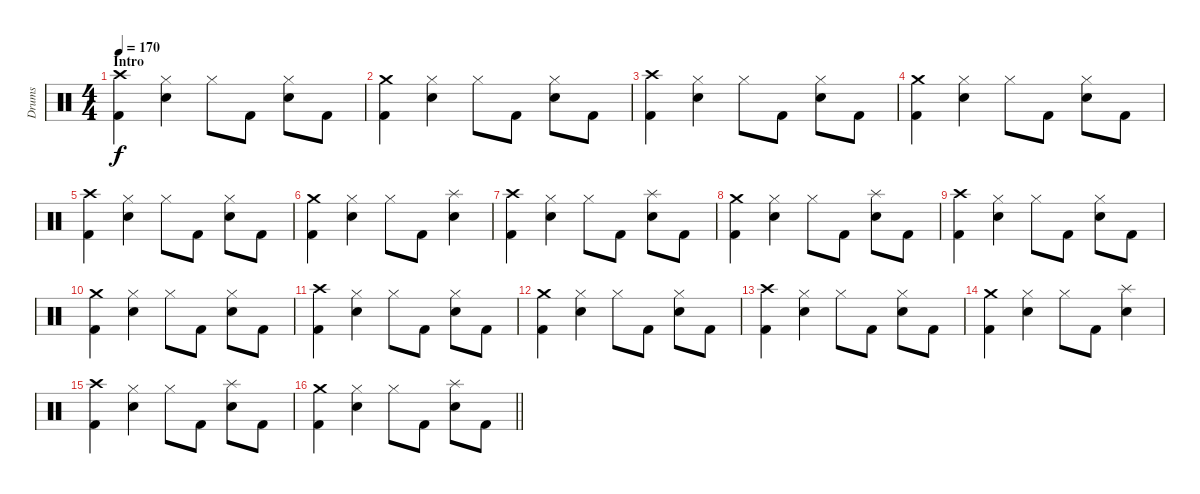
\track ("Drums" "Drums") {instrument percussion}
\staff {score}
\articulation defaults
\ts (4 4)
\section ("" "Intro")
\tempo 170
\clef neutral
\ks c
("Kick (hit) 2" "Crash high (hit)").4{dy f} ("Hi-Hat (closed)" "Electric Snare (hit)").4 "Hi-Hat (closed)".8 "Kick (hit) 2".8 ("Hi-Hat (closed)" "Electric Snare (hit)").8 "Kick (hit) 2".8 |
("Kick (hit) 2" "Crash medium (hit)").4 ("Hi-Hat (closed)" "Electric Snare (hit)").4 "Hi-Hat (closed)".8 "Kick (hit) 2".8 ("Hi-Hat (closed)" "Electric Snare (hit)").8 "Kick (hit) 2".8 |
("Kick (hit) 2" "Crash high (hit)").4 ("Hi-Hat (closed)" "Electric Snare (hit)").4 "Hi-Hat (closed)".8 "Kick (hit) 2".8 ("Hi-Hat (closed)" "Electric Snare (hit)").8 "Kick (hit) 2".8 |
("Kick (hit) 2" "Crash medium (hit)").4 ("Hi-Hat (closed)" "Electric Snare (hit)").4 "Hi-Hat (closed)".8 "Kick (hit) 2".8 ("Hi-Hat (closed)" "Electric Snare (hit)").8 "Kick (hit) 2".8 |
("Kick (hit) 2" "Crash high (hit)").4 ("Hi-Hat (closed)" "Electric Snare (hit)").4 "Hi-Hat (closed)".8 "Kick (hit) 2".8 ("Hi-Hat (closed)" "Electric Snare (hit)").8 "Kick (hit) 2".8 |
("Kick (hit) 2" "Crash medium (hit)").4 ("Hi-Hat (closed)" "Electric Snare (hit)").4 "Hi-Hat (closed)".8 "Kick (hit) 2".8 ("Splash (hit)" "Electric Snare (hit)").4 |
("Kick (hit) 2" "Crash high (hit)").4 ("Hi-Hat (closed)" "Electric Snare (hit)").4 "Hi-Hat (closed)".8 "Kick (hit) 2".8 ("Splash (hit)" "Electric Snare (hit)").8 "Kick (hit) 2".8 |
("Kick (hit) 2" "Crash medium (hit)").4 ("Hi-Hat (closed)" "Electric Snare (hit)").4 "Hi-Hat (closed)".8 "Kick (hit) 2".8 ("Splash (hit)" "Electric Snare (hit)").8 "Kick (hit) 2".8 |
("Kick (hit) 2" "Crash high (hit)").4 ("Hi-Hat (closed)" "Electric Snare (hit)").4 "Hi-Hat (closed)".8 "Kick (hit) 2".8 ("Hi-Hat (closed)" "Electric Snare (hit)").8 "Kick (hit) 2".8 |
("Kick (hit) 2" "Crash medium (hit)").4 ("Hi-Hat (closed)" "Electric Snare (hit)").4 "Hi-Hat (closed)".8 "Kick (hit) 2".8 ("Hi-Hat (closed)" "Electric Snare (hit)").8 "Kick (hit) 2".8 |
("Kick (hit) 2" "Crash high (hit)").4 ("Hi-Hat (closed)" "Electric Snare (hit)").4 "Hi-Hat (closed)".8 "Kick (hit) 2".8 ("Hi-Hat (closed)" "Electric Snare (hit)").8 "Kick (hit) 2".8 |
("Kick (hit) 2" "Crash medium (hit)").4 ("Hi-Hat (closed)" "Electric Snare (hit)").4 "Hi-Hat (closed)".8 "Kick (hit) 2".8 ("Hi-Hat (closed)" "Electric Snare (hit)").8 "Kick (hit) 2".8 |
("Kick (hit) 2" "Crash high (hit)").4 ("Hi-Hat (closed)" "Electric Snare (hit)").4 "Hi-Hat (closed)".8 "Kick (hit) 2".8 ("Hi-Hat (closed)" "Electric Snare (hit)").8 "Kick (hit) 2".8 |
("Kick (hit) 2" "Crash medium (hit)").4 ("Hi-Hat (closed)" "Electric Snare (hit)").4 "Hi-Hat (closed)".8 "Kick (hit) 2".8 ("Splash (hit)" "Electric Snare (hit)").4 |
("Kick (hit) 2" "Crash high (hit)").4 ("Hi-Hat (closed)" "Electric Snare (hit)").4 "Hi-Hat (closed)".8 "Kick (hit) 2".8 ("Splash (hit)" "Electric Snare (hit)").8 "Kick (hit) 2".8 |
\barLineRight lightlight
("Kick (hit) 2" "Crash medium (hit)").4 ("Hi-Hat (closed)" "Electric Snare (hit)").4 "Hi-Hat (closed)".8 "Kick (hit) 2".8 ("Splash (hit)" "Electric Snare (hit)").8 "Kick (hit) 2".8
